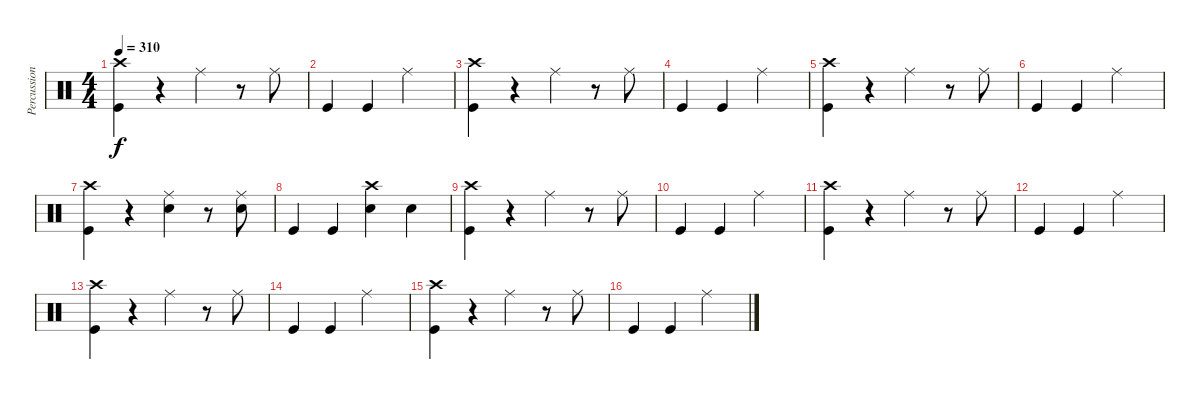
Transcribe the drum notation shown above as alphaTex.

\track ("Percussion" "Percussion") {instrument percussion}
\staff {score}
\articulation defaults
\ts (4 4)
\tempo 310
\clef neutral
\ks c
("Crash high (hit)" "Kick (hit)").4{dy f} r.4 "Ride (middle)".4 r.8 "Ride (middle)".8 |
"Kick (hit)".4 "Kick (hit)".4 "Ride (middle)".2 |
("Crash high (hit)" "Kick (hit)").4 r.4 "Ride (middle)".4 r.8 "Ride (middle)".8 |
"Kick (hit)".4 "Kick (hit)".4 "Ride (middle)".2 |
("Crash high (hit)" "Kick (hit)").4 r.4 "Ride (middle)".4 r.8 "Ride (middle)".8 |
"Kick (hit)".4 "Kick (hit)".4 "Ride (middle)".2 |
("Crash high (hit)" "Kick (hit)").4 r.4 ("Ride (middle)" "Electric Snare (hit)").4 r.8 ("Ride (middle)" "Electric Snare (hit)").8 |
"Kick (hit)".4 "Kick (hit)".4 ("Crash high (hit)" "Electric Snare (hit)").4 "Electric Snare (hit)".4 |
("Crash high (hit)" "Kick (hit)").4 r.4 "Ride (middle)".4 r.8 "Ride (middle)".8 |
"Kick (hit)".4 "Kick (hit)".4 "Ride (middle)".2 |
("Crash high (hit)" "Kick (hit)").4 r.4 "Ride (middle)".4 r.8 "Ride (middle)".8 |
"Kick (hit)".4 "Kick (hit)".4 "Ride (middle)".2 |
("Crash high (hit)" "Kick (hit)").4 r.4 "Ride (middle)".4 r.8 "Ride (middle)".8 |
"Kick (hit)".4 "Kick (hit)".4 "Ride (middle)".2 |
("Crash high (hit)" "Kick (hit)").4 r.4 "Ride (middle)".4 r.8 "Ride (middle)".8 |
"Kick (hit)".4 "Kick (hit)".4 "Ride (middle)".2
